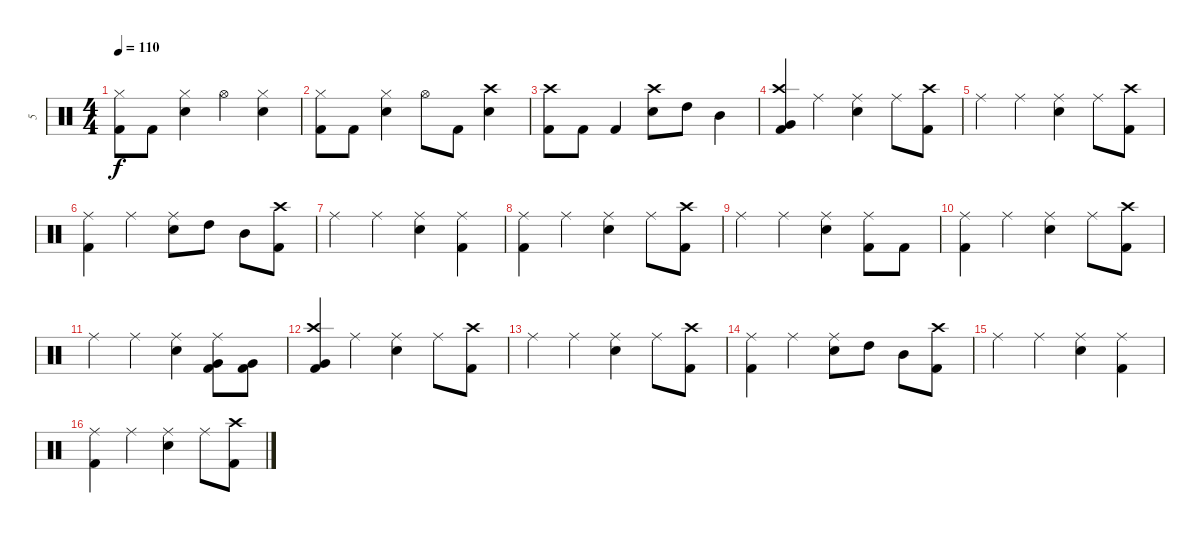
\track ("5" "5") {instrument percussion}
\staff {score}
\articulation defaults
\ts (4 4)
\tempo 110
\clef neutral
\ks c
("Hi-Hat (closed)" "Kick (hit) 2").8{dy f} "Kick (hit) 2".8 ("Hi-Hat (closed)" "Electric Snare (hit)").4 "Hi-Hat (open)".4 ("Hi-Hat (closed)" "Electric Snare (hit)").4 |
("Hi-Hat (closed)" "Kick (hit) 2").8 "Kick (hit) 2".8 ("Hi-Hat (closed)" "Electric Snare (hit)").4 "Hi-Hat (open)".8 "Kick (hit) 2".8 ("Crash high (hit)" "Electric Snare (hit)").4 |
("Crash high (hit)" "Kick (hit) 2").8 "Kick (hit) 2".8 "Kick (hit) 2".4 ("Crash high (hit)" "Electric Snare (hit)").8 "High Tom (hit)".8 "Mid Tom (hit)".4 |
("Crash high (hit)" "Very Low Tom (hit)" "Kick (hit) 2").4 "Ride (middle)".4 ("Ride (middle)" "Electric Snare (hit)").4 "Ride (middle)".8 ("Crash high (hit)" "Kick (hit) 2").8 |
"Ride (middle)".4 "Ride (middle)".4 ("Ride (middle)" "Electric Snare (hit)").4 "Ride (middle)".8 ("Crash high (hit)" "Kick (hit) 2").8 |
("Ride (middle)" "Kick (hit) 2").4 "Ride (middle)".4 ("Ride (middle)" "Electric Snare (hit)").8 "High Tom (hit)".8 "Mid Tom (hit)".8 ("Crash high (hit)" "Kick (hit) 2").8 |
"Ride (middle)".4 "Ride (middle)".4 ("Ride (middle)" "Electric Snare (hit)").4 ("Ride (middle)" "Kick (hit) 2").4 |
("Ride (middle)" "Kick (hit) 2").4 "Ride (middle)".4 ("Ride (middle)" "Electric Snare (hit)").4 "Ride (middle)".8 ("Crash high (hit)" "Kick (hit) 2").8 |
"Ride (middle)".4 "Ride (middle)".4 ("Ride (middle)" "Electric Snare (hit)").4 ("Ride (middle)" "Kick (hit) 2").8 "Kick (hit) 2".8 |
("Ride (middle)" "Kick (hit) 2").4 "Ride (middle)".4 ("Ride (middle)" "Electric Snare (hit)").4 "Ride (middle)".8 ("Crash high (hit)" "Kick (hit) 2").8 |
"Ride (middle)".4 "Ride (middle)".4 ("Ride (middle)" "Electric Snare (hit)").4 ("Ride (middle)" "Kick (hit) 2" "Very Low Tom (hit)").8 ("Kick (hit) 2" "Very Low Tom (hit)").8 |
("Crash high (hit)" "Very Low Tom (hit)" "Kick (hit) 2").4 "Ride (middle)".4 ("Ride (middle)" "Electric Snare (hit)").4 "Ride (middle)".8 ("Crash high (hit)" "Kick (hit) 2").8 |
"Ride (middle)".4 "Ride (middle)".4 ("Ride (middle)" "Electric Snare (hit)").4 "Ride (middle)".8 ("Crash high (hit)" "Kick (hit) 2").8 |
("Ride (middle)" "Kick (hit) 2").4 "Ride (middle)".4 ("Ride (middle)" "Electric Snare (hit)").8 "High Tom (hit)".8 "Mid Tom (hit)".8 ("Crash high (hit)" "Kick (hit) 2").8 |
"Ride (middle)".4 "Ride (middle)".4 ("Ride (middle)" "Electric Snare (hit)").4 ("Ride (middle)" "Kick (hit) 2").4 |
("Ride (middle)" "Kick (hit) 2").4 "Ride (middle)".4 ("Ride (middle)" "Electric Snare (hit)").4 "Ride (middle)".8 ("Crash high (hit)" "Kick (hit) 2").8
